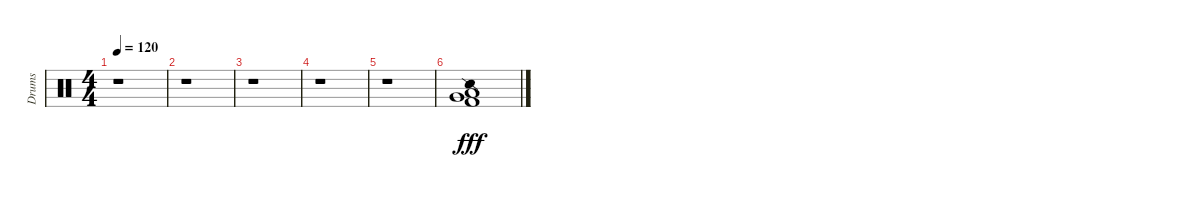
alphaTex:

\track ("Drums" "Drums") {instrument percussion}
\staff {score}
\articulation defaults
\ts (4 4)
\tempo 120
\clef neutral
\ks c
r.1{dy fff} |
r.1 |
r.1 |
r.1 |
r.1 |
("Snare (side stick) 2" "Kick (hit) 2" "Very Low Tom (hit)" "Low Floor Tom (hit)").1
